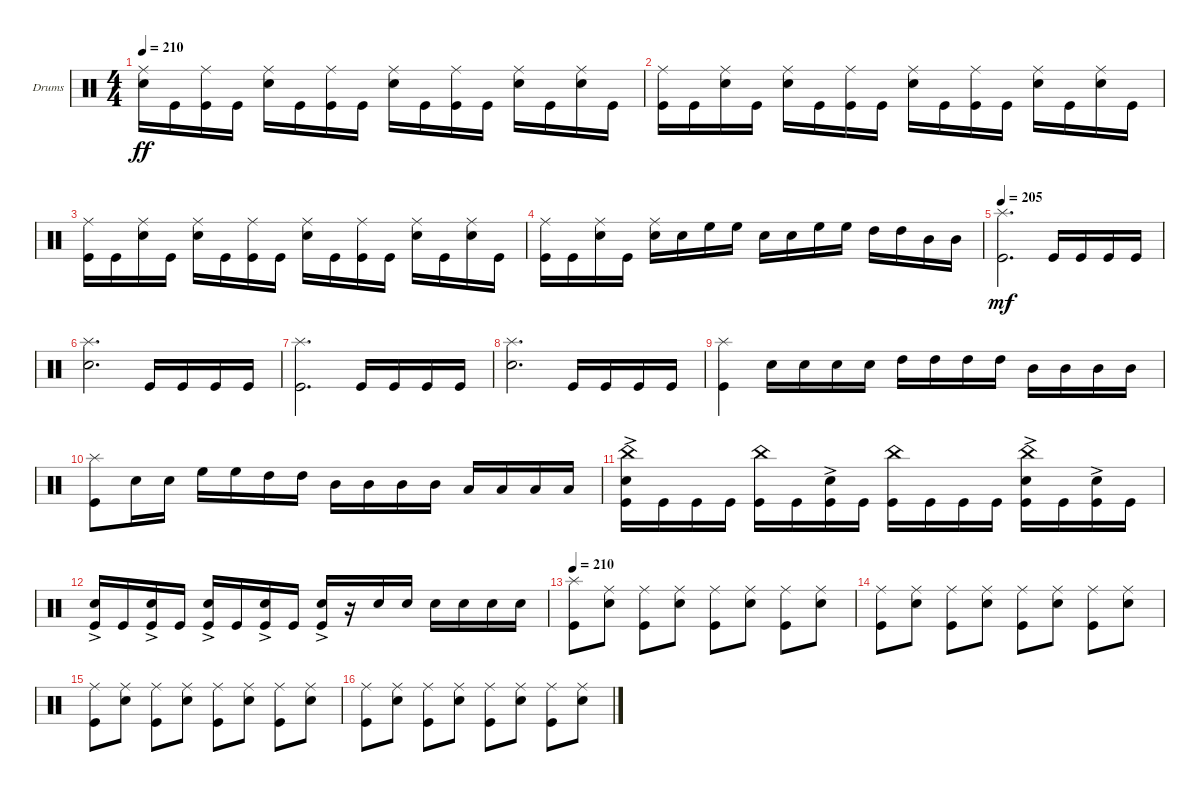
\bracketExtendMode groupsimilarinstruments
\firstSystemTrackNameOrientation horizontal
\otherSystemsTrackNameOrientation horizontal
\track ("Drumkit" "Drums") {instrument percussion}
\staff {score}
\articulation defaults
\ts (4 4)
\tempo 210
\clef neutral
\ks c
("Snare (hit) 2" "Ride (middle)").16{dy ff} "Kick (hit)".16 ("Kick (hit)" "Ride (middle)").16 "Kick (hit)".16 ("Snare (hit) 2" "Ride (middle)").16 "Kick (hit)".16 ("Kick (hit)" "Ride (middle)").16 "Kick (hit)".16 ("Ride (middle)" "Snare (hit) 2").16 "Kick (hit)".16 ("Kick (hit)" "Ride (middle)").16 "Kick (hit)".16 ("Snare (hit) 2" "Ride (middle)").16 "Kick (hit)".16 ("Ride (middle)" "Snare (hit) 2").16 "Kick (hit)".16 |
("Kick (hit)" "Ride (middle)").16 "Kick (hit)".16 ("Snare (hit) 2" "Ride (middle)").16 "Kick (hit)".16 ("Snare (hit) 2" "Ride (middle)").16 "Kick (hit)".16 ("Kick (hit)" "Ride (middle)").16 "Kick (hit)".16 ("Ride (middle)" "Snare (hit) 2").16 "Kick (hit)".16 ("Kick (hit)" "Ride (middle)").16 "Kick (hit)".16 ("Snare (hit) 2" "Ride (middle)").16 "Kick (hit)".16 ("Ride (middle)" "Snare (hit) 2").16 "Kick (hit)".16 |
("Kick (hit)" "Ride (middle)").16 "Kick (hit)".16 ("Snare (hit) 2" "Ride (middle)").16 "Kick (hit)".16 ("Snare (hit) 2" "Ride (middle)").16 "Kick (hit)".16 ("Kick (hit)" "Ride (middle)").16 "Kick (hit)".16 ("Ride (middle)" "Snare (hit) 2").16 "Kick (hit)".16 ("Kick (hit)" "Ride (middle)").16 "Kick (hit)".16 ("Snare (hit) 2" "Ride (middle)").16 "Kick (hit)".16 ("Ride (middle)" "Snare (hit) 2").16 "Kick (hit)".16 |
("Kick (hit)" "Ride (middle)").16 "Kick (hit)".16 ("Snare (hit) 2" "Ride (middle)").16 "Kick (hit)".16 ("Snare (hit) 2" "Ride (middle)").16 "Snare (hit) 2".16 "High Floor Tom (hit)".16 "High Floor Tom (hit)".16 "Snare (hit) 2".16 "Snare (hit) 2".16 "High Floor Tom (hit)".16 "High Floor Tom (hit)".16 "High Tom (hit)".16 "High Tom (hit)".16 "Mid Tom (hit)".16 "Mid Tom (hit)".16 |
\tempo 205
("Kick (hit)" "Splash (hit)").2{d dy mf} "Kick (hit)".16 "Kick (hit)".16 "Kick (hit)".16 "Kick (hit)".16 |
("Splash (hit)" "Snare (hit) 2").2{d} "Kick (hit)".16 "Kick (hit)".16 "Kick (hit)".16 "Kick (hit)".16 |
("Kick (hit)" "Splash (hit)").2{d} "Kick (hit)".16 "Kick (hit)".16 "Kick (hit)".16 "Kick (hit)".16 |
("Splash (hit)" "Snare (hit) 2").2{d} "Kick (hit)".16 "Kick (hit)".16 "Kick (hit)".16 "Kick (hit)".16 |
("Splash (hit)" "Kick (hit)").4 "Snare (hit) 2".16 "Snare (hit) 2".16 "Snare (hit) 2".16 "Snare (hit) 2".16 "High Tom (hit)".16 "High Tom (hit)".16 "High Tom (hit)".16 "High Tom (hit)".16 "Mid Tom (hit)".16 "Mid Tom (hit)".16 "Mid Tom (hit)".16 "Mid Tom (hit)".16 |
("Kick (hit)" "Splash (hit)").8 "Snare (hit) 2".16 "Snare (hit) 2".16 "High Floor Tom (hit)".16 "High Floor Tom (hit)".16 "High Tom (hit)".16 "High Tom (hit)".16 "Mid Tom (hit)".16 "Mid Tom (hit)".16 "Mid Tom (hit)".16 "Mid Tom (hit)".16 "Low Tom (hit)".16 "Low Tom (hit)".16 "Low Tom (hit)".16 "Low Tom (hit)".16 |
("Snare (hit) 2"{ac} "Kick (hit)" "China (hit)").16 "Kick (hit)".16 "Kick (hit)".16 "Kick (hit)".16 ("Kick (hit)" "China (hit)").16 "Kick (hit)".16 ("Snare (hit) 2"{ac} "Kick (hit)").16 "Kick (hit)".16 ("Kick (hit)" "China (hit)").16 "Kick (hit)".16 "Kick (hit)".16 "Kick (hit)".16 ("Snare (hit) 2"{ac} "Kick (hit)" "China (hit)").16 "Kick (hit)".16 ("Snare (hit) 2"{ac} "Kick (hit)").16 "Kick (hit)".16 |
("Snare (hit) 2"{ac} "Kick (hit)").16 "Kick (hit)".16 ("Snare (hit) 2"{ac} "Kick (hit)").16 "Kick (hit)".16 ("Snare (hit) 2"{ac} "Kick (hit)").16 "Kick (hit)".16 ("Snare (hit) 2"{ac} "Kick (hit)").16 "Kick (hit)".16 ("Snare (hit) 2"{ac} "Kick (hit)").16 r.16 "Snare (hit) 2".16 "Snare (hit) 2".16 "Snare (hit) 2".16 "Snare (hit) 2".16 "Snare (hit) 2".16 "Snare (hit) 2".16 |
\tempo 210
("Kick (hit)" "Splash (hit)").8 ("Snare (hit) 2" "Ride (middle)").8 ("Kick (hit)" "Ride (middle)").8 ("Snare (hit) 2" "Ride (middle)").8 ("Kick (hit)" "Ride (middle)").8 ("Snare (hit) 2" "Ride (middle)").8 ("Kick (hit)" "Ride (middle)").8 ("Snare (hit) 2" "Ride (middle)").8 |
("Kick (hit)" "Ride (middle)").8 ("Snare (hit) 2" "Ride (middle)").8 ("Kick (hit)" "Ride (middle)").8 ("Snare (hit) 2" "Ride (middle)").8 ("Kick (hit)" "Ride (middle)").8 ("Snare (hit) 2" "Ride (middle)").8 ("Kick (hit)" "Ride (middle)").8 ("Snare (hit) 2" "Ride (middle)").8 |
("Kick (hit)" "Ride (middle)").8 ("Snare (hit) 2" "Ride (middle)").8 ("Kick (hit)" "Ride (middle)").8 ("Snare (hit) 2" "Ride (middle)").8 ("Kick (hit)" "Ride (middle)").8 ("Snare (hit) 2" "Ride (middle)").8 ("Kick (hit)" "Ride (middle)").8 ("Snare (hit) 2" "Ride (middle)").8 |
("Kick (hit)" "Ride (middle)").8 ("Snare (hit) 2" "Ride (middle)").8 ("Kick (hit)" "Ride (middle)").8 ("Snare (hit) 2" "Ride (middle)").8 ("Kick (hit)" "Ride (middle)").8 ("Snare (hit) 2" "Ride (middle)").8 ("Kick (hit)" "Ride (middle)").8 ("Snare (hit) 2" "Ride (middle)").8
